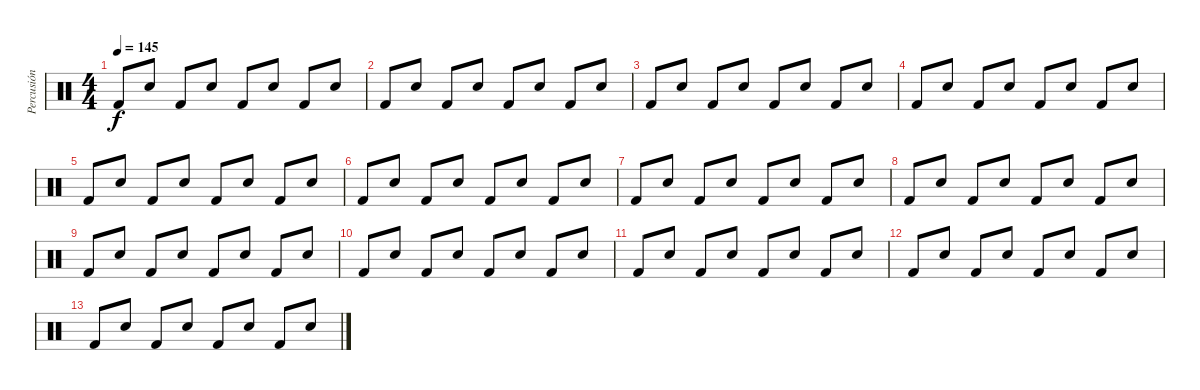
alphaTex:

\track ("Percusión" "Percusión") {instrument percussion}
\staff {score}
\articulation defaults
\ts (4 4)
\tempo 145
\clef neutral
\ks c "Kick (hit) 2".8{dy f} "Snare (hit) 2".8 "Kick (hit) 2".8 "Snare (hit) 2".8 "Kick (hit) 2".8 "Snare (hit) 2".8 "Kick (hit) 2".8 "Snare (hit) 2".8
|
"Kick (hit) 2".8 "Snare (hit) 2".8 "Kick (hit) 2".8 "Snare (hit) 2".8 "Kick (hit) 2".8 "Snare (hit) 2".8 "Kick (hit) 2".8 "Snare (hit) 2".8 |
"Kick (hit) 2".8 "Snare (hit) 2".8 "Kick (hit) 2".8 "Snare (hit) 2".8 "Kick (hit) 2".8 "Snare (hit) 2".8 "Kick (hit) 2".8 "Snare (hit) 2".8 |
"Kick (hit) 2".8 "Snare (hit) 2".8 "Kick (hit) 2".8 "Snare (hit) 2".8 "Kick (hit) 2".8 "Snare (hit) 2".8 "Kick (hit) 2".8 "Snare (hit) 2".8 |
"Kick (hit) 2".8 "Snare (hit) 2".8 "Kick (hit) 2".8 "Snare (hit) 2".8 "Kick (hit) 2".8 "Snare (hit) 2".8 "Kick (hit) 2".8 "Snare (hit) 2".8 |
"Kick (hit) 2".8 "Snare (hit) 2".8 "Kick (hit) 2".8 "Snare (hit) 2".8 "Kick (hit) 2".8 "Snare (hit) 2".8 "Kick (hit) 2".8 "Snare (hit) 2".8 |
"Kick (hit) 2".8 "Snare (hit) 2".8 "Kick (hit) 2".8 "Snare (hit) 2".8 "Kick (hit) 2".8 "Snare (hit) 2".8 "Kick (hit) 2".8 "Snare (hit) 2".8 |
"Kick (hit) 2".8 "Snare (hit) 2".8 "Kick (hit) 2".8 "Snare (hit) 2".8 "Kick (hit) 2".8 "Snare (hit) 2".8 "Kick (hit) 2".8 "Snare (hit) 2".8 |
"Kick (hit) 2".8 "Snare (hit) 2".8 "Kick (hit) 2".8 "Snare (hit) 2".8 "Kick (hit) 2".8 "Snare (hit) 2".8 "Kick (hit) 2".8 "Snare (hit) 2".8 |
"Kick (hit) 2".8 "Snare (hit) 2".8 "Kick (hit) 2".8 "Snare (hit) 2".8 "Kick (hit) 2".8 "Snare (hit) 2".8 "Kick (hit) 2".8 "Snare (hit) 2".8 |
"Kick (hit) 2".8 "Snare (hit) 2".8 "Kick (hit) 2".8 "Snare (hit) 2".8 "Kick (hit) 2".8 "Snare (hit) 2".8 "Kick (hit) 2".8 "Snare (hit) 2".8 |
"Kick (hit) 2".8 "Snare (hit) 2".8 "Kick (hit) 2".8 "Snare (hit) 2".8 "Kick (hit) 2".8 "Snare (hit) 2".8 "Kick (hit) 2".8 "Snare (hit) 2".8 |
"Kick (hit) 2".8 "Snare (hit) 2".8 "Kick (hit) 2".8 "Snare (hit) 2".8 "Kick (hit) 2".8 "Snare (hit) 2".8 "Kick (hit) 2".8 "Snare (hit) 2".8
